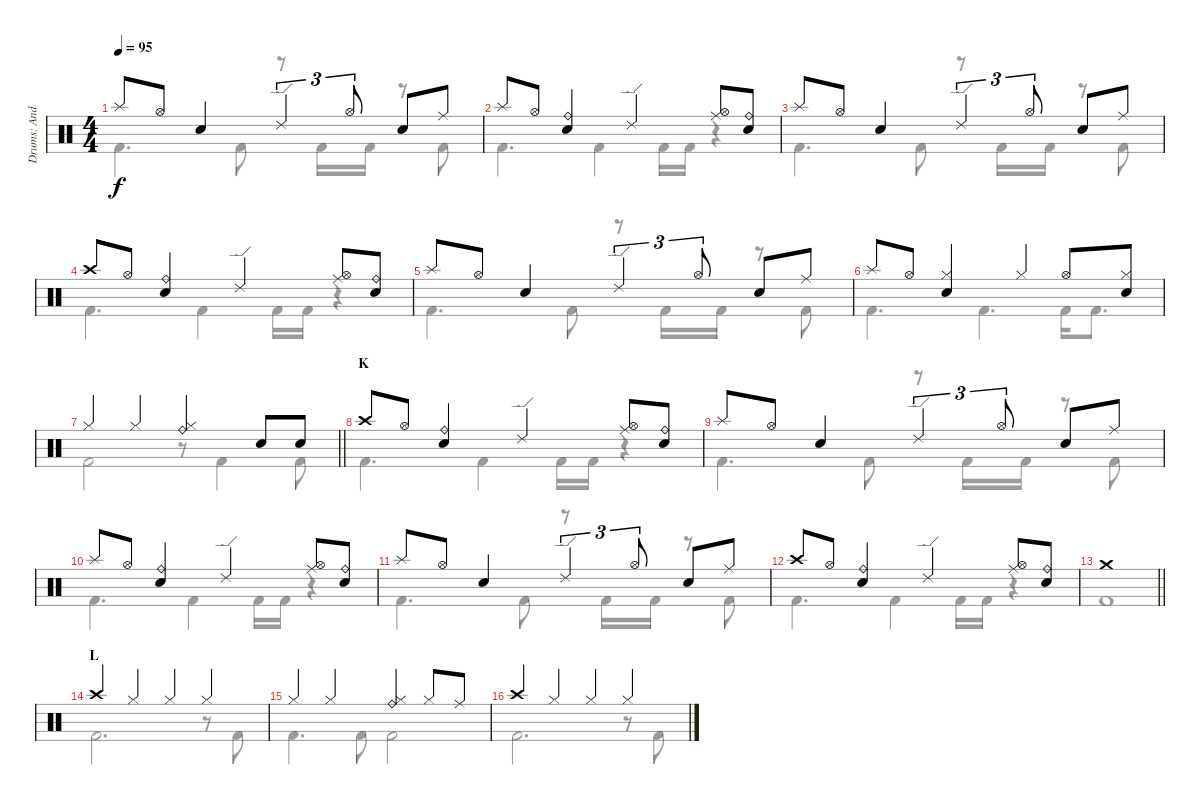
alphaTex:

\track ("Drums: Andy" "Drums: And") {instrument percussion}
\staff {score}
\articulation defaults
\voice
\ts (4 4)
\tempo 95
\clef neutral
\ks c "Splash (hit)".8{dy f} "Hi-Hat (open)".8 "Electric Snare (hit)".4 "Ride (edge) 2".4{tu (3 2)} "Hi-Hat (open)".8{tu (3 2)} "Electric Snare (hit)".8 "Ride (middle)".8
|
"Splash (hit)".8 "Hi-Hat (open)".8 ("Ride (bell)" "Electric Snare (hit)").4 "Ride (edge) 2".4 ("Ride (middle)" "Hi-Hat (open)").8 ("Ride (bell)" "Electric Snare (hit)").8 |
"Splash (hit)".8 "Hi-Hat (open)".8 "Electric Snare (hit)".4 "Ride (edge) 2".4{tu (3 2)} "Hi-Hat (open)".8{tu (3 2)} "Electric Snare (hit)".8 "Ride (middle)".8 |
"Crash high (hit)".8 "Hi-Hat (open)".8 ("Ride (bell)" "Electric Snare (hit)").4 "Ride (edge) 2".4 ("Ride (middle)" "Hi-Hat (open)").8 ("Ride (bell)" "Electric Snare (hit)").8 |
"Splash (hit)".8 "Hi-Hat (open)".8 "Electric Snare (hit)".4 "Ride (edge) 2".4{tu (3 2)} "Hi-Hat (open)".8{tu (3 2)} "Electric Snare (hit)".8 "Ride (middle)".8 |
"Splash (hit)".8 "Hi-Hat (open)".8 ("Hi-Hat (closed)" "Electric Snare (hit)").4 "Hi-Hat (closed)".4 "Hi-Hat (open)".8 ("Hi-Hat (closed)" "Electric Snare (hit)").8 |
\barLineRight lightlight "Hi-Hat (closed)".4 "Hi-Hat (closed)".4
("Ride (bell)" "Hi-Hat (closed)").4 "Snare (hit) 2".8 "Snare (hit) 2".8 |
\section ("" "K")
"Crash high (hit)".8 "Hi-Hat (open)".8 ("Ride (bell)" "Electric Snare (hit)").4 "Ride (edge) 2".4 ("Ride (middle)" "Hi-Hat (open)").8 ("Ride (bell)" "Electric Snare (hit)").8 |
"Splash (hit)".8 "Hi-Hat (open)".8 "Electric Snare (hit)".4 "Ride (edge) 2".4{tu (3 2)} "Hi-Hat (open)".8{tu (3 2)} "Electric Snare (hit)".8 "Ride (middle)".8 |
"Splash (hit)".8 "Hi-Hat (open)".8 ("Ride (bell)" "Electric Snare (hit)").4 "Ride (edge) 2".4 ("Ride (middle)" "Hi-Hat (open)").8 ("Ride (bell)" "Electric Snare (hit)").8 |
"Splash (hit)".8 "Hi-Hat (open)".8 "Electric Snare (hit)".4 "Ride (edge) 2".4{tu (3 2)} "Hi-Hat (open)".8{tu (3 2)} "Electric Snare (hit)".8 "Ride (middle)".8 |
"Crash high (hit)".8 "Hi-Hat (open)".8 ("Ride (bell)" "Electric Snare (hit)").4 "Ride (edge) 2".4 ("Ride (middle)" "Hi-Hat (open)").8 ("Ride (bell)" "Electric Snare (hit)").8 |
\barLineRight lightlight "Crash medium (hit)".1
|
\section ("" "L")
"Crash high (hit)".4 "Hi-Hat (closed)".4 "Hi-Hat (closed)".4 "Hi-Hat (closed)".4 |
"Hi-Hat (closed)".4 "Hi-Hat (closed)".4 ("Ride (bell)" "Hi-Hat (closed)").4 "Hi-Hat (closed)".8 "Ride (middle)".8 |
"Crash high (hit)".4 "Hi-Hat (closed)".4 "Hi-Hat (closed)".4 "Hi-Hat (closed)".4
\voice
\clef neutral
\ottava regular
\simile none
\ks c "Kick (hit) 2".4{d dy f} "Kick (hit) 2".8
r.8 "Kick (hit) 2".16 "Kick (hit) 2".16 r.8 "Kick (hit) 2".8 |
"Kick (hit) 2".4{d} "Kick (hit) 2".4 "Kick (hit) 2".16 "Kick (hit) 2".16 r.4 |
"Kick (hit) 2".4{d} "Kick (hit) 2".8 r.8 "Kick (hit) 2".16 "Kick (hit) 2".16 r.8 "Kick (hit) 2".8 |
"Kick (hit) 2".4{d} "Kick (hit) 2".4 "Kick (hit) 2".16 "Kick (hit) 2".16 r.4 |
"Kick (hit) 2".4{d} "Kick (hit) 2".8 r.8 "Kick (hit) 2".16 "Kick (hit) 2".16 r.8 "Kick (hit) 2".8 |
"Kick (hit) 2".4{d} "Kick (hit) 2".4{d} "Kick (hit) 2".16 "Kick (hit) 2".8{d} |
\barLineRight lightlight "Kick (hit) 2".2
r.8 "Kick (hit) 2".4 "Kick (hit) 2".8 |
"Kick (hit) 2".4{d} "Kick (hit) 2".4 "Kick (hit) 2".16 "Kick (hit) 2".16 r.4 |
"Kick (hit) 2".4{d} "Kick (hit) 2".8 r.8 "Kick (hit) 2".16 "Kick (hit) 2".16 r.8 "Kick (hit) 2".8 |
"Kick (hit) 2".4{d} "Kick (hit) 2".4 "Kick (hit) 2".16 "Kick (hit) 2".16 r.4 |
"Kick (hit) 2".4{d} "Kick (hit) 2".8 r.8 "Kick (hit) 2".16 "Kick (hit) 2".16 r.8 "Kick (hit) 2".8 |
"Kick (hit) 2".4{d} "Kick (hit) 2".4 "Kick (hit) 2".16 "Kick (hit) 2".16 r.4 |
\barLineRight lightlight "Kick (hit) 2".1
|
"Kick (hit) 2".2{d} r.8 "Kick (hit) 2".8 |
"Kick (hit) 2".4{d} "Kick (hit) 2".8 "Kick (hit) 2".2 |
"Kick (hit) 2".2{d} r.8 "Kick (hit) 2".8
